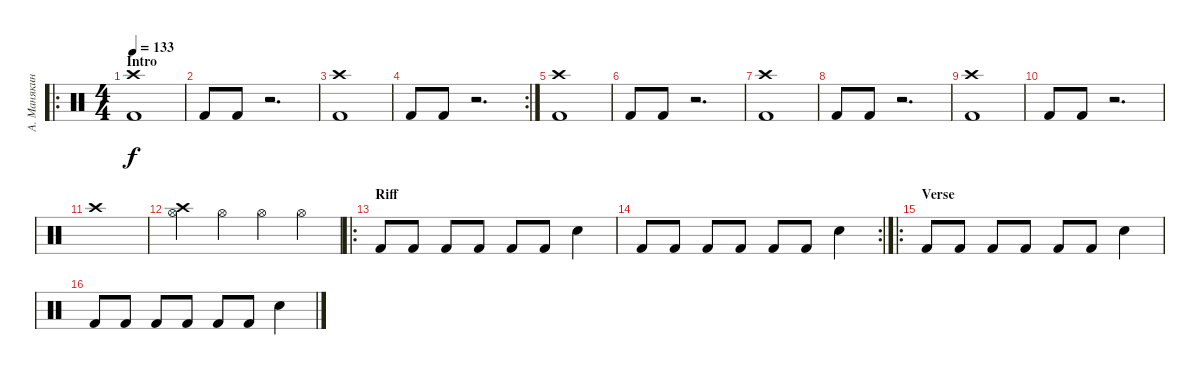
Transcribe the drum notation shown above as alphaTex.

\track ("А. Манякин" "А. Манякин") {instrument percussion}
\staff {score}
\articulation defaults
\ro
\ts (4 4)
\section ("" "Intro")
\tempo 133
\clef neutral
\ks c
("Kick (hit) 2" "Crash high (hit)").1{dy f} |
"Kick (hit) 2".8 "Kick (hit) 2".8 r.2{d} |
("Kick (hit) 2" "Crash high (hit)").1 |
\rc 2 "Kick (hit) 2".8 "Kick (hit) 2".8
r.2{d} |
("Kick (hit) 2" "Crash high (hit)").1 |
"Kick (hit) 2".8 "Kick (hit) 2".8 r.2{d} |
("Kick (hit) 2" "Crash high (hit)").1 |
"Kick (hit) 2".8 "Kick (hit) 2".8 r.2{d} |
("Kick (hit) 2" "Crash high (hit)").1 |
"Kick (hit) 2".8 "Kick (hit) 2".8 r.2{d} |
"Crash high (hit)".1 |
("Crash high (hit)" "Hi-Hat (open)").4 "Hi-Hat (open)".4 "Hi-Hat (open)".4 "Hi-Hat (open)".4 |
\ro
\section ("" "Riff")
"Kick (hit) 2".8 "Kick (hit) 2".8 "Kick (hit) 2".8 "Kick (hit) 2".8 "Kick (hit) 2".8 "Kick (hit) 2".8 "Snare (hit) 2".4 |
\rc 2 "Kick (hit) 2".8 "Kick (hit) 2".8 "Kick (hit) 2".8 "Kick (hit) 2".8 "Kick (hit) 2".8 "Kick (hit) 2".8 "Snare (hit) 2".4
|
\ro
\section ("" "Verse")
"Kick (hit) 2".8 "Kick (hit) 2".8 "Kick (hit) 2".8 "Kick (hit) 2".8 "Kick (hit) 2".8 "Kick (hit) 2".8 "Snare (hit) 2".4 |
"Kick (hit) 2".8 "Kick (hit) 2".8 "Kick (hit) 2".8 "Kick (hit) 2".8 "Kick (hit) 2".8 "Kick (hit) 2".8 "Snare (hit) 2".4
